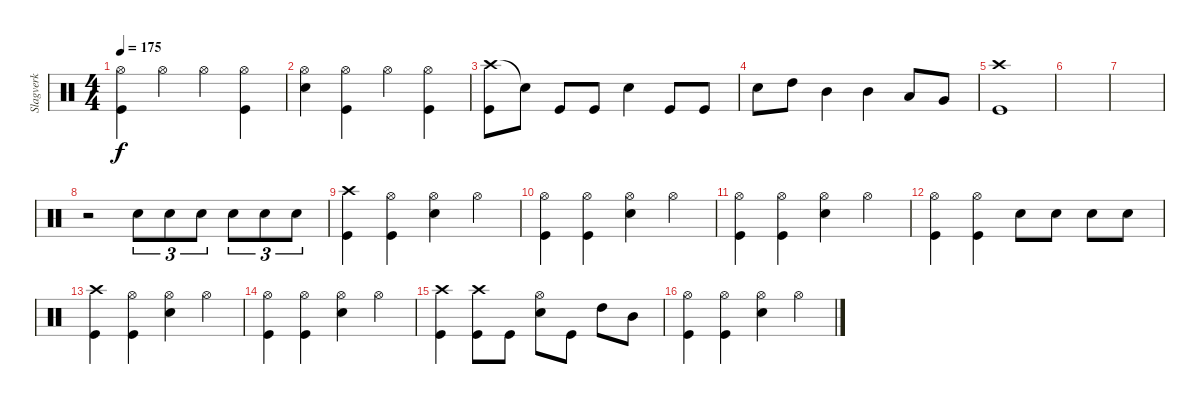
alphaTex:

\track ("Slagverk" "Slagverk") {instrument percussion}
\staff {score}
\articulation defaults
\ts (4 4)
\tempo 175
\clef neutral
\ks c
("Hi-Hat (open)" "Kick (hit)").4{dy f} "Hi-Hat (open)".4 "Hi-Hat (open)".4 ("Hi-Hat (open)" "Kick (hit)").4 |
("Hi-Hat (open)" "Electric Snare (hit)").4 ("Hi-Hat (open)" "Kick (hit)").4 "Hi-Hat (open)".4 ("Hi-Hat (open)" "Kick (hit)").4 |
("Crash high (hit)" "Kick (hit)").8 "Snare (hit)"{t}.8 "Kick (hit)".8 "Kick (hit)".8 "Electric Snare (hit)".4 "Kick (hit)".8 "Kick (hit)".8 |
"Electric Snare (hit)".8 "High Tom (hit)".8 "Mid Tom (hit)".4 "Mid Tom (hit)".4 "Low Tom (hit)".8 "Very Low Tom (hit)".8 |
("Crash high (hit)" "Kick (hit)").1 |
|
|
r.2 "Electric Snare (hit)".8{tu (3 2)} "Electric Snare (hit)".8{tu (3 2)} "Electric Snare (hit)".8{tu (3 2)} "Electric Snare (hit)".8{tu (3 2)} "Electric Snare (hit)".8{tu (3 2)} "Electric Snare (hit)".8{tu (3 2)} |
("Crash high (hit)" "Kick (hit)").4 ("Hi-Hat (open)" "Kick (hit)").4 ("Hi-Hat (open)" "Electric Snare (hit)").4 "Hi-Hat (open)".4 |
("Hi-Hat (open)" "Kick (hit)").4 ("Hi-Hat (open)" "Kick (hit)").4 ("Hi-Hat (open)" "Electric Snare (hit)").4 "Hi-Hat (open)".4 |
("Hi-Hat (open)" "Kick (hit)").4 ("Hi-Hat (open)" "Kick (hit)").4 ("Hi-Hat (open)" "Electric Snare (hit)").4 "Hi-Hat (open)".4 |
("Hi-Hat (open)" "Kick (hit)").4 ("Hi-Hat (open)" "Kick (hit)").4 "Electric Snare (hit)".8 "Electric Snare (hit)".8 "Electric Snare (hit)".8 "Electric Snare (hit)".8 |
("Crash high (hit)" "Kick (hit)").4 ("Hi-Hat (open)" "Kick (hit)").4 ("Hi-Hat (open)" "Electric Snare (hit)").4 "Hi-Hat (open)".4 |
("Hi-Hat (open)" "Kick (hit)").4 ("Hi-Hat (open)" "Kick (hit)").4 ("Hi-Hat (open)" "Electric Snare (hit)").4 "Hi-Hat (open)".4 |
("Crash high (hit)" "Kick (hit)").4 ("Crash high (hit)" "Kick (hit)").8 "Kick (hit)".8 ("Hi-Hat (open)" "Electric Snare (hit)").8 "Kick (hit)".8 "High Tom (hit)".8 "Mid Tom (hit)".8 |
("Hi-Hat (open)" "Kick (hit)").4 ("Hi-Hat (open)" "Kick (hit)").4 ("Hi-Hat (open)" "Electric Snare (hit)").4 "Hi-Hat (open)".4
